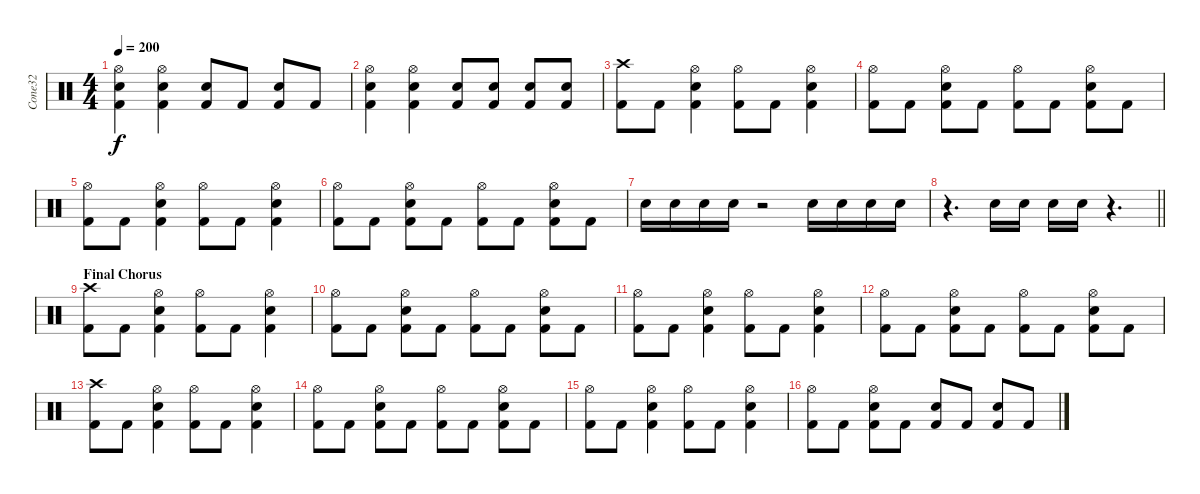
\track ("Cone32" "Cone32") {instrument percussion}
\staff {score}
\articulation defaults
\ts (4 4)
\tempo 200
\clef neutral
\ks c
("Hi-Hat (open)" "Snare (hit) 2" "Kick (hit) 2").4{dy f} ("Hi-Hat (open)" "Snare (hit) 2" "Kick (hit) 2").4 ("Snare (hit) 2" "Kick (hit) 2").8 "Kick (hit) 2".8 ("Snare (hit) 2" "Kick (hit) 2").8 "Kick (hit) 2".8 |
("Hi-Hat (open)" "Snare (hit) 2" "Kick (hit) 2").4 ("Hi-Hat (open)" "Snare (hit) 2" "Kick (hit) 2").4 ("Snare (hit) 2" "Kick (hit) 2").8 ("Snare (hit) 2" "Kick (hit) 2").8 ("Snare (hit) 2" "Kick (hit) 2").8 ("Snare (hit) 2" "Kick (hit) 2").8 |
("Crash high (hit)" "Kick (hit) 2").8 "Kick (hit) 2".8 ("Hi-Hat (open)" "Snare (hit) 2" "Kick (hit) 2").4 ("Hi-Hat (open)" "Kick (hit) 2").8 "Kick (hit) 2".8 ("Hi-Hat (open)" "Snare (hit) 2" "Kick (hit) 2").4 |
("Hi-Hat (open)" "Kick (hit) 2").8 "Kick (hit) 2".8 ("Hi-Hat (open)" "Snare (hit) 2" "Kick (hit) 2").8 "Kick (hit) 2".8 ("Hi-Hat (open)" "Kick (hit) 2").8 "Kick (hit) 2".8 ("Hi-Hat (open)" "Snare (hit) 2" "Kick (hit) 2").8 "Kick (hit) 2".8 |
("Hi-Hat (open)" "Kick (hit) 2").8 "Kick (hit) 2".8 ("Hi-Hat (open)" "Snare (hit) 2" "Kick (hit) 2").4 ("Hi-Hat (open)" "Kick (hit) 2").8 "Kick (hit) 2".8 ("Hi-Hat (open)" "Snare (hit) 2" "Kick (hit) 2").4 |
("Hi-Hat (open)" "Kick (hit) 2").8 "Kick (hit) 2".8 ("Hi-Hat (open)" "Snare (hit) 2" "Kick (hit) 2").8 "Kick (hit) 2".8 ("Hi-Hat (open)" "Kick (hit) 2").8 "Kick (hit) 2".8 ("Hi-Hat (open)" "Snare (hit) 2" "Kick (hit) 2").8 "Kick (hit) 2".8 |
"Snare (hit) 2".16 "Snare (hit) 2".16 "Snare (hit) 2".16 "Snare (hit) 2".16 r.2 "Snare (hit) 2".16 "Snare (hit) 2".16 "Snare (hit) 2".16 "Snare (hit) 2".16 |
\barLineRight lightlight
r.4{d} "Snare (hit) 2".16 "Snare (hit) 2".16 "Snare (hit) 2".16 "Snare (hit) 2".16 r.4{d} |
\section ("" "Final Chorus")
("Crash high (hit)" "Kick (hit) 2").8 "Kick (hit) 2".8 ("Hi-Hat (open)" "Snare (hit) 2" "Kick (hit) 2").4 ("Hi-Hat (open)" "Kick (hit) 2").8 "Kick (hit) 2".8 ("Hi-Hat (open)" "Snare (hit) 2" "Kick (hit) 2").4 |
("Hi-Hat (open)" "Kick (hit) 2").8 "Kick (hit) 2".8 ("Hi-Hat (open)" "Snare (hit) 2" "Kick (hit) 2").8 "Kick (hit) 2".8 ("Hi-Hat (open)" "Kick (hit) 2").8 "Kick (hit) 2".8 ("Hi-Hat (open)" "Snare (hit) 2" "Kick (hit) 2").8 "Kick (hit) 2".8 |
("Hi-Hat (open)" "Kick (hit) 2").8 "Kick (hit) 2".8 ("Hi-Hat (open)" "Snare (hit) 2" "Kick (hit) 2").4 ("Hi-Hat (open)" "Kick (hit) 2").8 "Kick (hit) 2".8 ("Hi-Hat (open)" "Snare (hit) 2" "Kick (hit) 2").4 |
("Hi-Hat (open)" "Kick (hit) 2").8 "Kick (hit) 2".8 ("Hi-Hat (open)" "Snare (hit) 2" "Kick (hit) 2").8 "Kick (hit) 2".8 ("Hi-Hat (open)" "Kick (hit) 2").8 "Kick (hit) 2".8 ("Hi-Hat (open)" "Snare (hit) 2" "Kick (hit) 2").8 "Kick (hit) 2".8 |
("Crash high (hit)" "Kick (hit) 2").8 "Kick (hit) 2".8 ("Hi-Hat (open)" "Snare (hit) 2" "Kick (hit) 2").4 ("Hi-Hat (open)" "Kick (hit) 2").8 "Kick (hit) 2".8 ("Hi-Hat (open)" "Snare (hit) 2" "Kick (hit) 2").4 |
("Hi-Hat (open)" "Kick (hit) 2").8 "Kick (hit) 2".8 ("Hi-Hat (open)" "Snare (hit) 2" "Kick (hit) 2").8 "Kick (hit) 2".8 ("Hi-Hat (open)" "Kick (hit) 2").8 "Kick (hit) 2".8 ("Hi-Hat (open)" "Snare (hit) 2" "Kick (hit) 2").8 "Kick (hit) 2".8 |
("Hi-Hat (open)" "Kick (hit) 2").8 "Kick (hit) 2".8 ("Hi-Hat (open)" "Snare (hit) 2" "Kick (hit) 2").4 ("Hi-Hat (open)" "Kick (hit) 2").8 "Kick (hit) 2".8 ("Hi-Hat (open)" "Snare (hit) 2" "Kick (hit) 2").4 |
("Hi-Hat (open)" "Kick (hit) 2").8 "Kick (hit) 2".8 ("Hi-Hat (open)" "Snare (hit) 2" "Kick (hit) 2").8 "Kick (hit) 2".8 ("Snare (hit) 2" "Kick (hit) 2").8 "Kick (hit) 2".8 ("Snare (hit) 2" "Kick (hit) 2").8 "Kick (hit) 2".8
